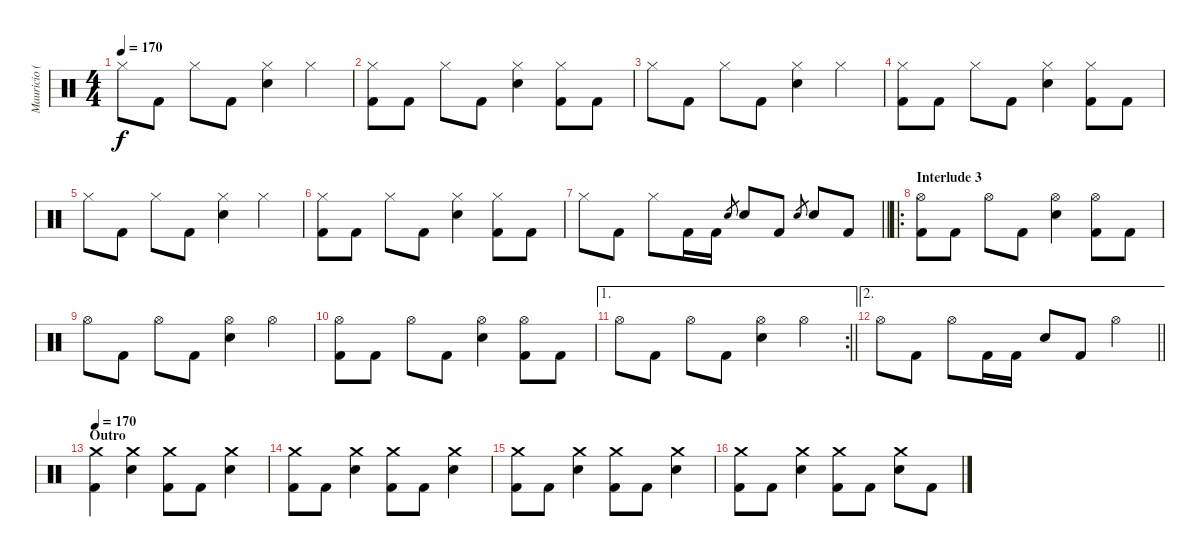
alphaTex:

\track ("Mauricio (Drum)" "Mauricio (") {instrument percussion}
\staff {score}
\articulation defaults
\ts (4 4)
\tempo 170
\clef neutral
\ks c "Hi-Hat (closed)".8{dy f} "Kick (hit) 2".8 "Hi-Hat (closed)".8 "Kick (hit) 2".8
("Hi-Hat (closed)" "Snare (hit) 2").4 "Hi-Hat (closed)".4 |
("Hi-Hat (closed)" "Kick (hit) 2").8 "Kick (hit) 2".8 "Hi-Hat (closed)".8 "Kick (hit) 2".8 ("Hi-Hat (closed)" "Snare (hit) 2").4 ("Hi-Hat (closed)" "Kick (hit) 2").8 "Kick (hit) 2".8 |
"Hi-Hat (closed)".8 "Kick (hit) 2".8 "Hi-Hat (closed)".8 "Kick (hit) 2".8 ("Hi-Hat (closed)" "Snare (hit) 2").4 "Hi-Hat (closed)".4 |
("Hi-Hat (closed)" "Kick (hit) 2").8 "Kick (hit) 2".8 "Hi-Hat (closed)".8 "Kick (hit) 2".8 ("Hi-Hat (closed)" "Snare (hit) 2").4 ("Hi-Hat (closed)" "Kick (hit) 2").8 "Kick (hit) 2".8 |
"Hi-Hat (closed)".8 "Kick (hit) 2".8 "Hi-Hat (closed)".8 "Kick (hit) 2".8 ("Hi-Hat (closed)" "Snare (hit) 2").4 "Hi-Hat (closed)".4 |
("Hi-Hat (closed)" "Kick (hit) 2").8 "Kick (hit) 2".8 "Hi-Hat (closed)".8 "Kick (hit) 2".8 ("Hi-Hat (closed)" "Snare (hit) 2").4 ("Hi-Hat (closed)" "Kick (hit) 2").8 "Kick (hit) 2".8 |
\barLineRight lightlight "Hi-Hat (closed)".8 "Kick (hit) 2".8 "Hi-Hat (closed)".8 "Kick (hit) 2".16 "Kick (hit) 2".16 "Snare (hit) 2".8{gr} "Snare (hit) 2".8 "Kick (hit) 2".8 "Snare (hit) 2".8{gr} "Snare (hit) 2".8 "Kick (hit) 2".8
|
\ro
\section ("" "Interlude 3")
("Hi-Hat (open)" "Kick (hit) 2").8 "Kick (hit) 2".8 "Hi-Hat (open)".8 "Kick (hit) 2".8 ("Hi-Hat (open)" "Snare (hit) 2").4 ("Hi-Hat (open)" "Kick (hit) 2").8 "Kick (hit) 2".8 |
"Hi-Hat (open)".8 "Kick (hit) 2".8 "Hi-Hat (open)".8 "Kick (hit) 2".8 ("Hi-Hat (open)" "Snare (hit) 2").4 "Hi-Hat (open)".4 |
("Hi-Hat (open)" "Kick (hit) 2").8 "Kick (hit) 2".8 "Hi-Hat (open)".8 "Kick (hit) 2".8 ("Hi-Hat (open)" "Snare (hit) 2").4 ("Hi-Hat (open)" "Kick (hit) 2").8 "Kick (hit) 2".8 |
\ae 1
\rc 2
\barLineRight lightlight "Hi-Hat (open)".8 "Kick (hit) 2".8 "Hi-Hat (open)".8 "Kick (hit) 2".8
("Hi-Hat (open)" "Snare (hit) 2").4 "Hi-Hat (open)".4 |
\ae 2
\barLineRight lightlight "Hi-Hat (open)".8 "Kick (hit) 2".8 "Hi-Hat (open)".8 "Kick (hit) 2".16 "Kick (hit) 2".16 "Snare (hit) 2".8 "Kick (hit) 2".8 "Hi-Hat (open)".4
|
\section ("" "Outro")
\tempo 170
("Crash medium (hit)" "Kick (hit) 2").4 ("Crash medium (hit)" "Snare (hit) 2").4 ("Crash medium (hit)" "Kick (hit) 2").8 "Kick (hit) 2".8 ("Crash medium (hit)" "Snare (hit) 2").4 |
("Crash medium (hit)" "Kick (hit) 2").8 "Kick (hit) 2".8 ("Crash medium (hit)" "Snare (hit) 2").4 ("Crash medium (hit)" "Kick (hit) 2").8 "Kick (hit) 2".8 ("Crash medium (hit)" "Snare (hit) 2").4 |
("Crash medium (hit)" "Kick (hit) 2").8 "Kick (hit) 2".8 ("Crash medium (hit)" "Snare (hit) 2").4 ("Crash medium (hit)" "Kick (hit) 2").8 "Kick (hit) 2".8 ("Crash medium (hit)" "Snare (hit) 2").4 |
("Crash medium (hit)" "Kick (hit) 2").8 "Kick (hit) 2".8 ("Crash medium (hit)" "Snare (hit) 2").4 ("Crash medium (hit)" "Kick (hit) 2").8 "Kick (hit) 2".8 ("Crash medium (hit)" "Snare (hit) 2").8 "Kick (hit) 2".8
